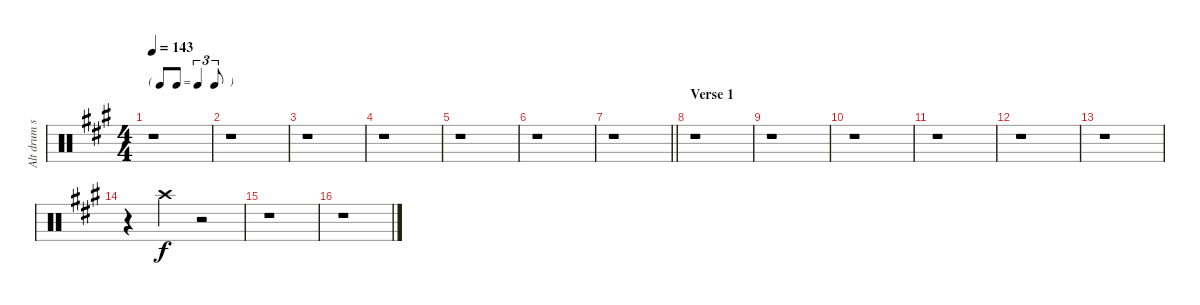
\track ("Alt drum sounds" "Alt drum s") {instrument percussion}
\staff {score}
\articulation defaults
\ts (4 4)
\tf triplet8th
\tempo 143
\clef neutral
\ks a
r.1{dy ff} |
r.1 |
r.1 |
r.1 |
r.1 |
r.1 |
\barLineRight lightlight
r.1 |
\section ("" "Verse 1")
r.1 |
r.1 |
r.1 |
r.1 |
r.1 |
r.1 |
r.4 "Crash high (hit)".4{dy f} r.2 |
r.1 |
r.1
